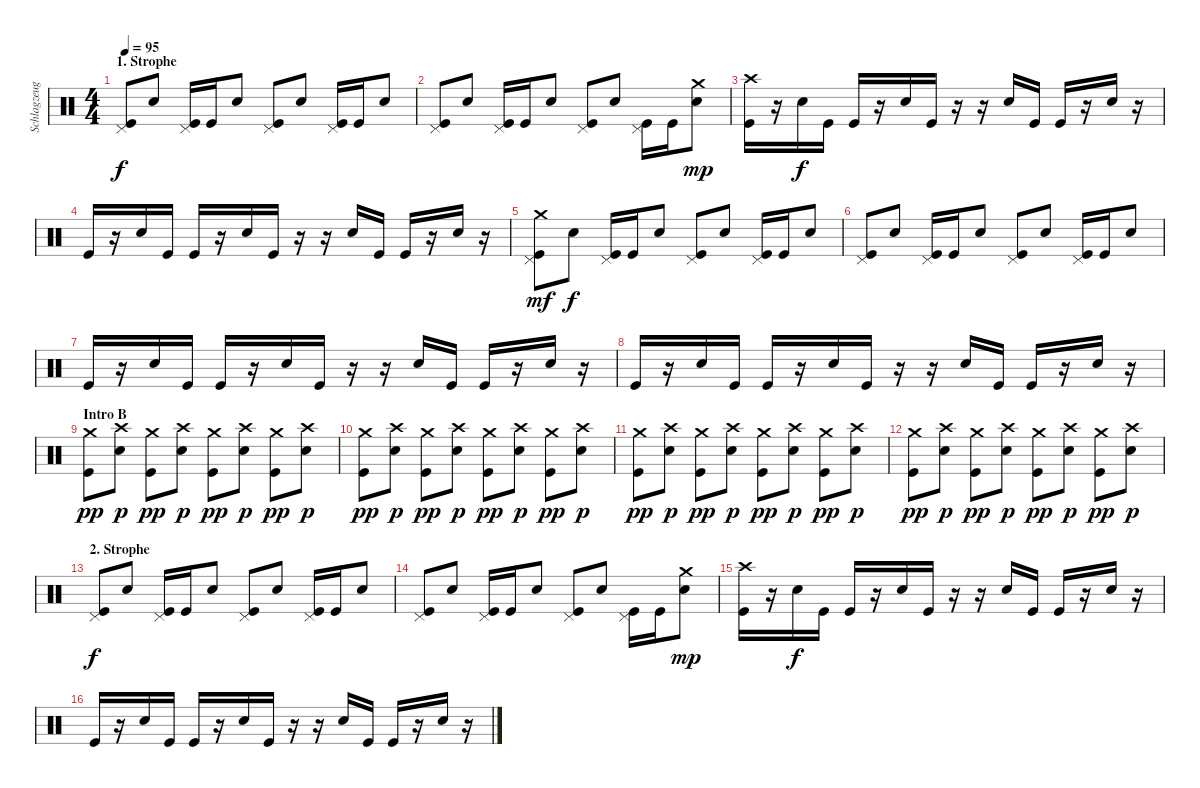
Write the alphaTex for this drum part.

\track ("Schlagzeug" "Schlagzeug") {instrument percussion}
\staff {score}
\articulation defaults
\ts (4 4)
\section ("" "1. Strophe")
\tempo 95
\clef neutral
\ks c
("Pedal Hi-Hat (hit)" "Kick (hit)").8{dy f} "Snare (hit) 2".8 ("Pedal Hi-Hat (hit)" "Kick (hit)").16 "Kick (hit)".16 "Snare (hit) 2".8 ("Pedal Hi-Hat (hit)" "Kick (hit)").8 "Snare (hit) 2".8 ("Pedal Hi-Hat (hit)" "Kick (hit)").16 "Kick (hit)".16 "Snare (hit) 2".8 |
("Pedal Hi-Hat (hit)" "Kick (hit)").8 "Snare (hit) 2".8 ("Pedal Hi-Hat (hit)" "Kick (hit)").16 "Kick (hit)".16 "Snare (hit) 2".8 ("Pedal Hi-Hat (hit)" "Kick (hit)").8 "Snare (hit) 2".8 ("Pedal Hi-Hat (hit)" "Kick (hit)").16 "Kick (hit)".16 ("Crash medium (hit)" "Snare (hit) 2").8{dy mp} |
("Crash high (hit)" "Kick (hit)").16 r.16 "Snare (hit) 2".16{dy f} "Kick (hit)".16 "Kick (hit)".16 r.16 "Snare (hit) 2".16 "Kick (hit)".16 r.16 r.16 "Snare (hit) 2".16 "Kick (hit)".16 "Kick (hit)".16 r.16 "Snare (hit) 2".16 r.16 |
"Kick (hit)".16 r.16 "Snare (hit) 2".16 "Kick (hit)".16 "Kick (hit)".16 r.16 "Snare (hit) 2".16 "Kick (hit)".16 r.16 r.16 "Snare (hit) 2".16 "Kick (hit)".16 "Kick (hit)".16 r.16 "Snare (hit) 2".16 r.16 |
("Pedal Hi-Hat (hit)" "Kick (hit)" "Crash medium (hit)").8{dy mf} "Snare (hit) 2".8{dy f} ("Pedal Hi-Hat (hit)" "Kick (hit)").16 "Kick (hit)".16 "Snare (hit) 2".8 ("Pedal Hi-Hat (hit)" "Kick (hit)").8 "Snare (hit) 2".8 ("Pedal Hi-Hat (hit)" "Kick (hit)").16 "Kick (hit)".16 "Snare (hit) 2".8 |
("Pedal Hi-Hat (hit)" "Kick (hit)").8 "Snare (hit) 2".8 ("Pedal Hi-Hat (hit)" "Kick (hit)").16 "Kick (hit)".16 "Snare (hit) 2".8 ("Pedal Hi-Hat (hit)" "Kick (hit)").8 "Snare (hit) 2".8 ("Pedal Hi-Hat (hit)" "Kick (hit)").16 "Kick (hit)".16 "Snare (hit) 2".8 |
"Kick (hit)".16 r.16 "Snare (hit) 2".16 "Kick (hit)".16 "Kick (hit)".16 r.16 "Snare (hit) 2".16 "Kick (hit)".16 r.16 r.16 "Snare (hit) 2".16 "Kick (hit)".16 "Kick (hit)".16 r.16 "Snare (hit) 2".16 r.16 |
"Kick (hit)".16 r.16 "Snare (hit) 2".16 "Kick (hit)".16 "Kick (hit)".16 r.16 "Snare (hit) 2".16 "Kick (hit)".16 r.16 r.16 "Snare (hit) 2".16 "Kick (hit)".16 "Kick (hit)".16 r.16 "Snare (hit) 2".16 r.16 |
\section ("" "Intro B")
("Crash medium (hit)" "Kick (hit)").8{dy pp} ("Crash high (hit)" "Snare (hit) 2").8{dy p} ("Crash medium (hit)" "Kick (hit)").8{dy pp} ("Crash high (hit)" "Snare (hit) 2").8{dy p} ("Crash medium (hit)" "Kick (hit)").8{dy pp} ("Crash high (hit)" "Snare (hit) 2").8{dy p} ("Crash medium (hit)" "Kick (hit)").8{dy pp} ("Crash high (hit)" "Snare (hit) 2").8{dy p} |
("Crash medium (hit)" "Kick (hit)").8{dy pp} ("Crash high (hit)" "Snare (hit) 2").8{dy p} ("Crash medium (hit)" "Kick (hit)").8{dy pp} ("Crash high (hit)" "Snare (hit) 2").8{dy p} ("Crash medium (hit)" "Kick (hit)").8{dy pp} ("Crash high (hit)" "Snare (hit) 2").8{dy p} ("Crash medium (hit)" "Kick (hit)").8{dy pp} ("Crash high (hit)" "Snare (hit) 2").8{dy p} |
("Crash medium (hit)" "Kick (hit)").8{dy pp} ("Crash high (hit)" "Snare (hit) 2").8{dy p} ("Crash medium (hit)" "Kick (hit)").8{dy pp} ("Crash high (hit)" "Snare (hit) 2").8{dy p} ("Crash medium (hit)" "Kick (hit)").8{dy pp} ("Crash high (hit)" "Snare (hit) 2").8{dy p} ("Crash medium (hit)" "Kick (hit)").8{dy pp} ("Crash high (hit)" "Snare (hit) 2").8{dy p} |
("Crash medium (hit)" "Kick (hit)").8{dy pp} ("Crash high (hit)" "Snare (hit) 2").8{dy p} ("Crash medium (hit)" "Kick (hit)").8{dy pp} ("Crash high (hit)" "Snare (hit) 2").8{dy p} ("Crash medium (hit)" "Kick (hit)").8{dy pp} ("Crash high (hit)" "Snare (hit) 2").8{dy p} ("Crash medium (hit)" "Kick (hit)").8{dy pp} ("Crash high (hit)" "Snare (hit) 2").8{dy p} |
\section ("" "2. Strophe")
("Pedal Hi-Hat (hit)" "Kick (hit)").8{dy f} "Snare (hit) 2".8 ("Pedal Hi-Hat (hit)" "Kick (hit)").16 "Kick (hit)".16 "Snare (hit) 2".8 ("Pedal Hi-Hat (hit)" "Kick (hit)").8 "Snare (hit) 2".8 ("Pedal Hi-Hat (hit)" "Kick (hit)").16 "Kick (hit)".16 "Snare (hit) 2".8 |
("Pedal Hi-Hat (hit)" "Kick (hit)").8 "Snare (hit) 2".8 ("Pedal Hi-Hat (hit)" "Kick (hit)").16 "Kick (hit)".16 "Snare (hit) 2".8 ("Pedal Hi-Hat (hit)" "Kick (hit)").8 "Snare (hit) 2".8 ("Pedal Hi-Hat (hit)" "Kick (hit)").16 "Kick (hit)".16 ("Crash medium (hit)" "Snare (hit) 2").8{dy mp} |
("Crash high (hit)" "Kick (hit)").16 r.16 "Snare (hit) 2".16{dy f} "Kick (hit)".16 "Kick (hit)".16 r.16 "Snare (hit) 2".16 "Kick (hit)".16 r.16 r.16 "Snare (hit) 2".16 "Kick (hit)".16 "Kick (hit)".16 r.16 "Snare (hit) 2".16 r.16 |
"Kick (hit)".16 r.16 "Snare (hit) 2".16 "Kick (hit)".16 "Kick (hit)".16 r.16 "Snare (hit) 2".16 "Kick (hit)".16 r.16 r.16 "Snare (hit) 2".16 "Kick (hit)".16 "Kick (hit)".16 r.16 "Snare (hit) 2".16 r.16
